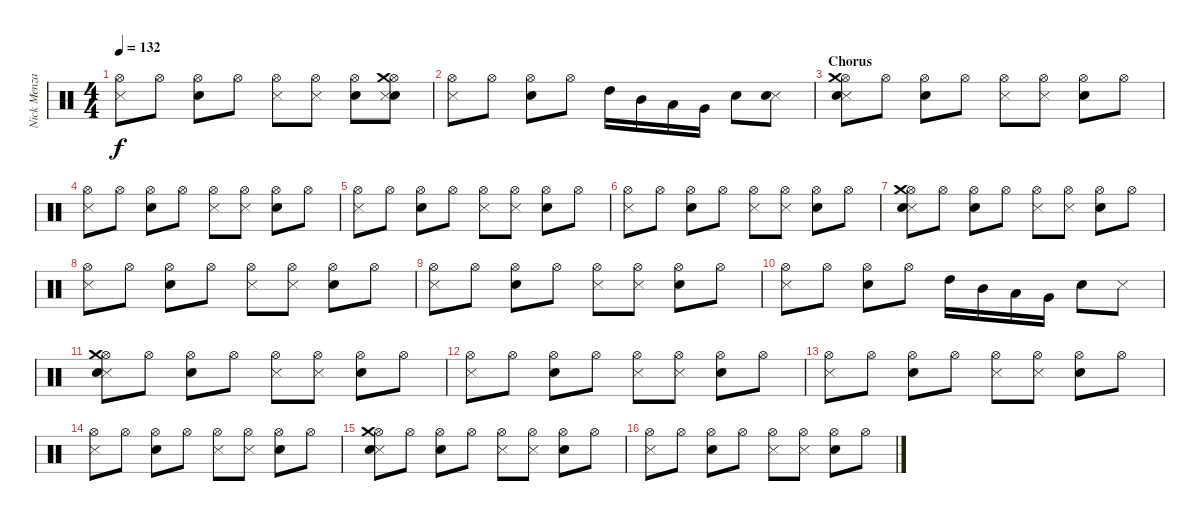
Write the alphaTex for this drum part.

\track ("Nick Menza (Drums)" "Nick Menza") {instrument percussion}
\staff {score}
\articulation defaults
\ts (4 4)
\tempo 132
\clef neutral
\ks c
("Metronome (hit)" "Hi-Hat (open)").8{dy f} "Hi-Hat (open)".8 ("Electric Snare (hit)" "Hi-Hat (open)").8 "Hi-Hat (open)".8 ("Hi-Hat (open)" "Metronome (hit)").8 ("Metronome (hit)" "Hi-Hat (open)").8 ("Hi-Hat (open)" "Electric Snare (hit)").8 ("Hi-Hat (open)" "Electric Snare (hit)" "Metronome (hit)" "Crash medium (hit)").8 |
("Hi-Hat (open)" "Metronome (hit)").8 "Hi-Hat (open)".8 ("Hi-Hat (open)" "Electric Snare (hit)").8 "Hi-Hat (open)".8 "High Tom (hit)".16 "Mid Tom (hit)".16 "Low Tom (hit)".16 "Very Low Tom (hit)".16 "Electric Snare (hit)".8 ("Metronome (hit)" "Electric Snare (hit)").8 |
\section ("" "Chorus")
("Metronome (hit)" "Electric Snare (hit)" "Hi-Hat (open)" "Crash medium (hit)").8 "Hi-Hat (open)".8 ("Electric Snare (hit)" "Hi-Hat (open)").8 "Hi-Hat (open)".8 ("Hi-Hat (open)" "Metronome (hit)").8 ("Hi-Hat (open)" "Metronome (hit)").8 ("Hi-Hat (open)" "Electric Snare (hit)").8 "Hi-Hat (open)".8 |
("Hi-Hat (open)" "Metronome (hit)").8 "Hi-Hat (open)".8 ("Hi-Hat (open)" "Electric Snare (hit)").8 "Hi-Hat (open)".8 ("Metronome (hit)" "Hi-Hat (open)").8 ("Metronome (hit)" "Hi-Hat (open)").8 ("Electric Snare (hit)" "Hi-Hat (open)").8 "Hi-Hat (open)".8 |
("Hi-Hat (open)" "Metronome (hit)").8 "Hi-Hat (open)".8 ("Electric Snare (hit)" "Hi-Hat (open)").8 "Hi-Hat (open)".8 ("Hi-Hat (open)" "Metronome (hit)").8 ("Hi-Hat (open)" "Metronome (hit)").8 ("Hi-Hat (open)" "Electric Snare (hit)").8 "Hi-Hat (open)".8 |
("Hi-Hat (open)" "Metronome (hit)").8 "Hi-Hat (open)".8 ("Hi-Hat (open)" "Electric Snare (hit)").8 "Hi-Hat (open)".8 ("Metronome (hit)" "Hi-Hat (open)").8 ("Metronome (hit)" "Hi-Hat (open)").8 ("Electric Snare (hit)" "Hi-Hat (open)").8 "Hi-Hat (open)".8 |
("Metronome (hit)" "Electric Snare (hit)" "Hi-Hat (open)" "Crash medium (hit)").8 "Hi-Hat (open)".8 ("Electric Snare (hit)" "Hi-Hat (open)").8 "Hi-Hat (open)".8 ("Hi-Hat (open)" "Metronome (hit)").8 ("Hi-Hat (open)" "Metronome (hit)").8 ("Hi-Hat (open)" "Electric Snare (hit)").8 "Hi-Hat (open)".8 |
("Hi-Hat (open)" "Metronome (hit)").8 "Hi-Hat (open)".8 ("Hi-Hat (open)" "Electric Snare (hit)").8 "Hi-Hat (open)".8 ("Metronome (hit)" "Hi-Hat (open)").8 ("Metronome (hit)" "Hi-Hat (open)").8 ("Electric Snare (hit)" "Hi-Hat (open)").8 "Hi-Hat (open)".8 |
("Hi-Hat (open)" "Metronome (hit)").8 "Hi-Hat (open)".8 ("Electric Snare (hit)" "Hi-Hat (open)").8 "Hi-Hat (open)".8 ("Hi-Hat (open)" "Metronome (hit)").8 ("Hi-Hat (open)" "Metronome (hit)").8 ("Hi-Hat (open)" "Electric Snare (hit)").8 "Hi-Hat (open)".8 |
("Metronome (hit)" "Hi-Hat (open)").8 "Hi-Hat (open)".8 ("Hi-Hat (open)" "Electric Snare (hit)").8 "Hi-Hat (open)".8 "High Tom (hit)".16 "Mid Tom (hit)".16 "Low Tom (hit)".16 "Very Low Tom (hit)".16 "Electric Snare (hit)".8 "Metronome (hit)".8 |
("Metronome (hit)" "Electric Snare (hit)" "Hi-Hat (open)" "Crash medium (hit)").8 "Hi-Hat (open)".8 ("Electric Snare (hit)" "Hi-Hat (open)").8 "Hi-Hat (open)".8 ("Hi-Hat (open)" "Metronome (hit)").8 ("Hi-Hat (open)" "Metronome (hit)").8 ("Hi-Hat (open)" "Electric Snare (hit)").8 "Hi-Hat (open)".8 |
("Hi-Hat (open)" "Metronome (hit)").8 "Hi-Hat (open)".8 ("Hi-Hat (open)" "Electric Snare (hit)").8 "Hi-Hat (open)".8 ("Metronome (hit)" "Hi-Hat (open)").8 ("Metronome (hit)" "Hi-Hat (open)").8 ("Electric Snare (hit)" "Hi-Hat (open)").8 "Hi-Hat (open)".8 |
("Hi-Hat (open)" "Metronome (hit)").8 "Hi-Hat (open)".8 ("Electric Snare (hit)" "Hi-Hat (open)").8 "Hi-Hat (open)".8 ("Hi-Hat (open)" "Metronome (hit)").8 ("Hi-Hat (open)" "Metronome (hit)").8 ("Hi-Hat (open)" "Electric Snare (hit)").8 "Hi-Hat (open)".8 |
("Metronome (hit)" "Hi-Hat (open)").8 "Hi-Hat (open)".8 ("Hi-Hat (open)" "Electric Snare (hit)").8 "Hi-Hat (open)".8 ("Metronome (hit)" "Hi-Hat (open)").8 ("Metronome (hit)" "Hi-Hat (open)").8 ("Electric Snare (hit)" "Hi-Hat (open)").8 "Hi-Hat (open)".8 |
("Metronome (hit)" "Electric Snare (hit)" "Hi-Hat (open)" "Crash medium (hit)").8 "Hi-Hat (open)".8 ("Electric Snare (hit)" "Hi-Hat (open)").8 "Hi-Hat (open)".8 ("Hi-Hat (open)" "Metronome (hit)").8 ("Hi-Hat (open)" "Metronome (hit)").8 ("Hi-Hat (open)" "Electric Snare (hit)").8 "Hi-Hat (open)".8 |
("Hi-Hat (open)" "Metronome (hit)").8 "Hi-Hat (open)".8 ("Hi-Hat (open)" "Electric Snare (hit)").8 "Hi-Hat (open)".8 ("Metronome (hit)" "Hi-Hat (open)").8 ("Metronome (hit)" "Hi-Hat (open)").8 ("Electric Snare (hit)" "Hi-Hat (open)").8 "Hi-Hat (open)".8
